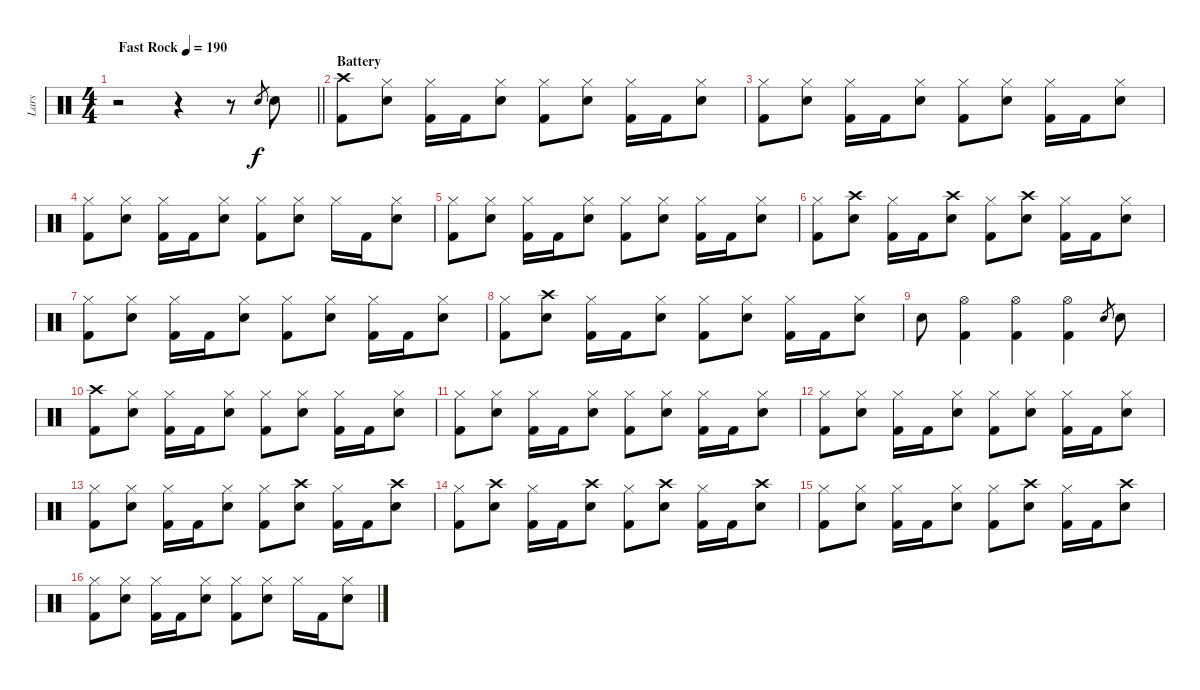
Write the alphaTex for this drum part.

\track ("Lars" "Lars") {instrument percussion}
\staff {score}
\articulation defaults
\ts (4 4)
\tempo (190 "Fast Rock")
\clef neutral
\barLineRight lightlight
\ks c
r.2{dy f} r.4 r.8 "Snare (hit) 2".8{gr} "Snare (hit) 2".8 |
\section ("" "Battery")
("Crash high (hit)" "Kick (hit) 2").8 ("Hi-Hat (closed)" "Snare (hit) 2").8 ("Hi-Hat (closed)" "Kick (hit) 2").16 "Kick (hit) 2".16 ("Hi-Hat (closed)" "Snare (hit) 2").8 ("Hi-Hat (closed)" "Kick (hit) 2").8 ("Hi-Hat (closed)" "Snare (hit) 2").8 ("Hi-Hat (closed)" "Kick (hit) 2").16 "Kick (hit) 2".16 ("Hi-Hat (closed)" "Snare (hit) 2").8 |
("Hi-Hat (closed)" "Kick (hit) 2").8 ("Hi-Hat (closed)" "Snare (hit) 2").8 ("Hi-Hat (closed)" "Kick (hit) 2").16 "Kick (hit) 2".16 ("Hi-Hat (closed)" "Snare (hit) 2").8 ("Hi-Hat (closed)" "Kick (hit) 2").8 ("Hi-Hat (closed)" "Snare (hit) 2").8 ("Hi-Hat (closed)" "Kick (hit) 2").16 "Kick (hit) 2".16 ("Hi-Hat (closed)" "Snare (hit) 2").8 |
("Hi-Hat (closed)" "Kick (hit) 2").8 ("Hi-Hat (closed)" "Snare (hit) 2").8 ("Hi-Hat (closed)" "Kick (hit) 2").16 "Kick (hit) 2".16 ("Hi-Hat (closed)" "Snare (hit) 2").8 ("Hi-Hat (closed)" "Kick (hit) 2").8 ("Hi-Hat (closed)" "Snare (hit) 2").8 "Hi-Hat (closed)".16 "Kick (hit) 2".16 ("Hi-Hat (closed)" "Snare (hit) 2").8 |
("Hi-Hat (closed)" "Kick (hit) 2").8 ("Hi-Hat (closed)" "Snare (hit) 2").8 ("Hi-Hat (closed)" "Kick (hit) 2").16 "Kick (hit) 2".16 ("Hi-Hat (closed)" "Snare (hit) 2").8 ("Hi-Hat (closed)" "Kick (hit) 2").8 ("Hi-Hat (closed)" "Snare (hit) 2").8 ("Hi-Hat (closed)" "Kick (hit) 2").16 "Kick (hit) 2".16 ("Hi-Hat (closed)" "Snare (hit) 2").8 |
("Hi-Hat (closed)" "Kick (hit) 2").8 ("Crash high (hit)" "Snare (hit) 2").8 ("Hi-Hat (closed)" "Kick (hit) 2").16 "Kick (hit) 2".16 ("Crash high (hit)" "Snare (hit) 2").8 ("Hi-Hat (closed)" "Kick (hit) 2").8 ("Crash high (hit)" "Snare (hit) 2").8 ("Hi-Hat (closed)" "Kick (hit) 2").16 "Kick (hit) 2".16 ("Hi-Hat (closed)" "Snare (hit) 2").8 |
("Hi-Hat (closed)" "Kick (hit) 2").8 ("Hi-Hat (closed)" "Snare (hit) 2").8 ("Hi-Hat (closed)" "Kick (hit) 2").16 "Kick (hit) 2".16 ("Hi-Hat (closed)" "Snare (hit) 2").8 ("Hi-Hat (closed)" "Kick (hit) 2").8 ("Hi-Hat (closed)" "Snare (hit) 2").8 ("Hi-Hat (closed)" "Kick (hit) 2").16 "Kick (hit) 2".16 ("Hi-Hat (closed)" "Snare (hit) 2").8 |
("Hi-Hat (closed)" "Kick (hit) 2").8 ("Crash high (hit)" "Snare (hit) 2").8 ("Hi-Hat (closed)" "Kick (hit) 2").16 "Kick (hit) 2".16 ("Hi-Hat (closed)" "Snare (hit) 2").8 ("Hi-Hat (closed)" "Kick (hit) 2").8 ("Hi-Hat (closed)" "Snare (hit) 2").8 ("Hi-Hat (closed)" "Kick (hit) 2").16 "Kick (hit) 2".16 ("Hi-Hat (closed)" "Snare (hit) 2").8 |
"Snare (hit) 2".8 ("Hi-Hat (open)" "Kick (hit) 2").4 ("Hi-Hat (open)" "Kick (hit) 2").4 ("Hi-Hat (open)" "Kick (hit) 2").4 "Snare (hit) 2".8{gr} "Snare (hit) 2".8 |
("Crash high (hit)" "Kick (hit) 2").8 ("Hi-Hat (closed)" "Snare (hit) 2").8 ("Hi-Hat (closed)" "Kick (hit) 2").16 "Kick (hit) 2".16 ("Hi-Hat (closed)" "Snare (hit) 2").8 ("Hi-Hat (closed)" "Kick (hit) 2").8 ("Hi-Hat (closed)" "Snare (hit) 2").8 ("Hi-Hat (closed)" "Kick (hit) 2").16 "Kick (hit) 2".16 ("Hi-Hat (closed)" "Snare (hit) 2").8 |
("Hi-Hat (closed)" "Kick (hit) 2").8 ("Hi-Hat (closed)" "Snare (hit) 2").8 ("Hi-Hat (closed)" "Kick (hit) 2").16 "Kick (hit) 2".16 ("Hi-Hat (closed)" "Snare (hit) 2").8 ("Hi-Hat (closed)" "Kick (hit) 2").8 ("Hi-Hat (closed)" "Snare (hit) 2").8 ("Hi-Hat (closed)" "Kick (hit) 2").16 "Kick (hit) 2".16 ("Hi-Hat (closed)" "Snare (hit) 2").8 |
("Hi-Hat (closed)" "Kick (hit) 2").8 ("Hi-Hat (closed)" "Snare (hit) 2").8 ("Hi-Hat (closed)" "Kick (hit) 2").16 "Kick (hit) 2".16 ("Hi-Hat (closed)" "Snare (hit) 2").8 ("Hi-Hat (closed)" "Kick (hit) 2").8 ("Hi-Hat (closed)" "Snare (hit) 2").8 ("Hi-Hat (closed)" "Kick (hit) 2").16 "Kick (hit) 2".16 ("Hi-Hat (closed)" "Snare (hit) 2").8 |
("Hi-Hat (closed)" "Kick (hit) 2").8 ("Hi-Hat (closed)" "Snare (hit) 2").8 ("Hi-Hat (closed)" "Kick (hit) 2").16 "Kick (hit) 2".16 ("Hi-Hat (closed)" "Snare (hit) 2").8 ("Hi-Hat (closed)" "Kick (hit) 2").8 ("Crash high (hit)" "Snare (hit) 2").8 ("Hi-Hat (closed)" "Kick (hit) 2").16 "Kick (hit) 2".16 ("Crash high (hit)" "Snare (hit) 2").8 |
("Hi-Hat (closed)" "Kick (hit) 2").8 ("Crash high (hit)" "Snare (hit) 2").8 ("Hi-Hat (closed)" "Kick (hit) 2").16 "Kick (hit) 2".16 ("Crash high (hit)" "Snare (hit) 2").8 ("Hi-Hat (closed)" "Kick (hit) 2").8 ("Crash high (hit)" "Snare (hit) 2").8 ("Hi-Hat (closed)" "Kick (hit) 2").16 "Kick (hit) 2".16 ("Crash high (hit)" "Snare (hit) 2").8 |
("Hi-Hat (closed)" "Kick (hit) 2").8 ("Hi-Hat (closed)" "Snare (hit) 2").8 ("Hi-Hat (closed)" "Kick (hit) 2").16 "Kick (hit) 2".16 ("Hi-Hat (closed)" "Snare (hit) 2").8 ("Hi-Hat (closed)" "Kick (hit) 2").8 ("Crash high (hit)" "Snare (hit) 2").8 ("Hi-Hat (closed)" "Kick (hit) 2").16 "Kick (hit) 2".16 ("Crash high (hit)" "Snare (hit) 2").8 |
("Hi-Hat (closed)" "Kick (hit) 2").8 ("Hi-Hat (closed)" "Snare (hit) 2").8 ("Hi-Hat (closed)" "Kick (hit) 2").16 "Kick (hit) 2".16 ("Hi-Hat (closed)" "Snare (hit) 2").8 ("Hi-Hat (closed)" "Kick (hit) 2").8 ("Hi-Hat (closed)" "Snare (hit) 2").8 "Hi-Hat (closed)".16 "Kick (hit) 2".16 ("Hi-Hat (closed)" "Snare (hit) 2").8
